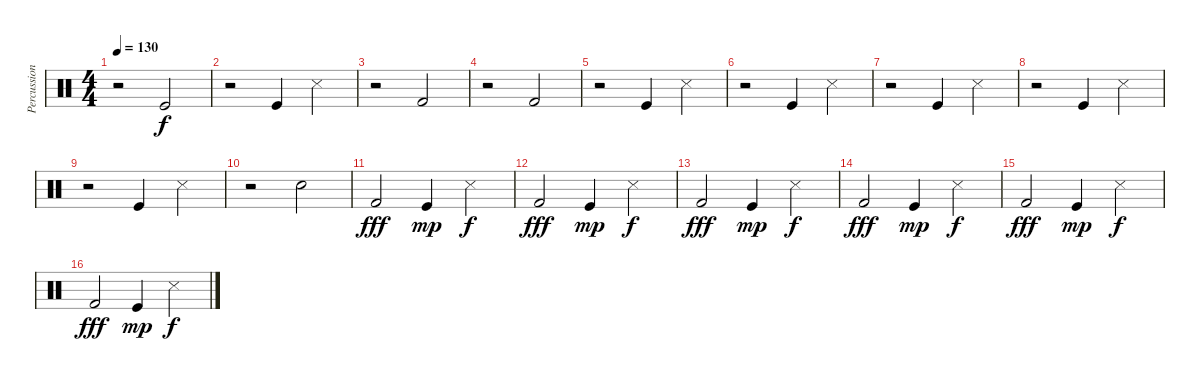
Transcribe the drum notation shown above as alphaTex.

\track ("Percussion" "Percussion") {instrument percussion}
\staff {score}
\articulation defaults
\ts (4 4)
\tempo 130
\clef neutral
\ks c
r.2{dy f} "Kick (hit)".2 |
r.2 "Kick (hit)".4 "Snare (side stick) 3".4 |
r.2 "Kick (hit) 2".2 |
r.2 "Kick (hit) 2".2 |
r.2 "Kick (hit)".4 "Snare (side stick) 3".4 |
r.2 "Kick (hit)".4 "Snare (side stick) 3".4 |
r.2 "Kick (hit)".4 "Snare (side stick) 3".4 |
r.2 "Kick (hit)".4 "Snare (side stick) 3".4 |
r.2 "Kick (hit)".4 "Snare (side stick) 3".4 |
r.2 "Snare (hit) 2".2 |
"Kick (hit) 2".2{dy fff} "Kick (hit)".4{dy mp} "Snare (side stick) 3".4{dy f} |
"Kick (hit) 2".2{dy fff} "Kick (hit)".4{dy mp} "Snare (side stick) 3".4{dy f} |
"Kick (hit) 2".2{dy fff} "Kick (hit)".4{dy mp} "Snare (side stick) 3".4{dy f} |
"Kick (hit) 2".2{dy fff} "Kick (hit)".4{dy mp} "Snare (side stick) 3".4{dy f} |
"Kick (hit) 2".2{dy fff} "Kick (hit)".4{dy mp} "Snare (side stick) 3".4{dy f} |
"Kick (hit) 2".2{dy fff} "Kick (hit)".4{dy mp} "Snare (side stick) 3".4{dy f}
